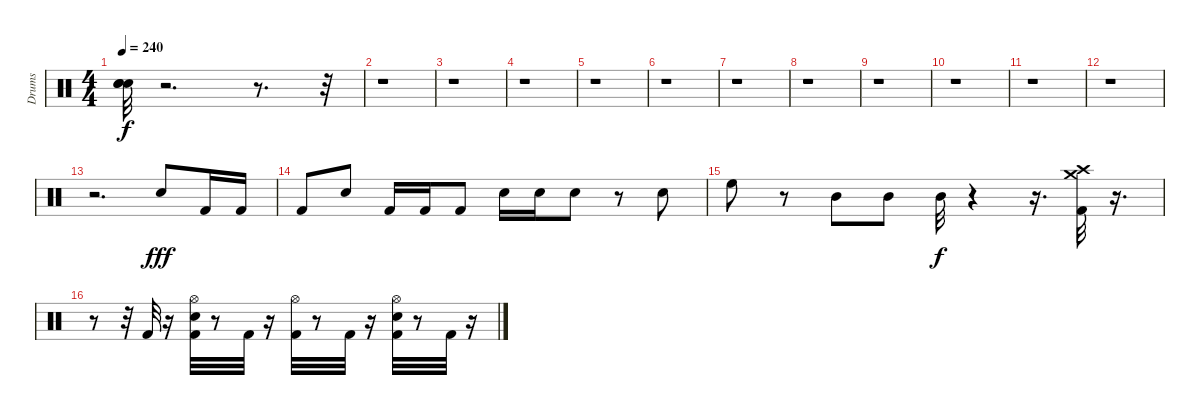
\track ("Drums" "Drums") {instrument percussion}
\staff {score}
\articulation defaults
\ts (4 4)
\tempo 240
\clef neutral
\ks c
("Snare (hit)"{t} "Snare (hit)"{t} "Snare (hit)"{t}).32{dy f} r.2{d} r.8{d} r.32 |
r.1 |
r.1 |
r.1 |
r.1 |
r.1 |
r.1 |
r.1 |
r.1 |
r.1 |
r.1 |
r.1 |
r.2{d} "Electric Snare (hit)".8{dy fff} "Kick (hit) 2".16 "Kick (hit) 2".16 |
"Kick (hit) 2".8 "Electric Snare (hit)".8 "Kick (hit) 2".16 "Kick (hit) 2".16 "Kick (hit) 2".8 "Electric Snare (hit)".16 "Electric Snare (hit)".16 "Electric Snare (hit)".8 r.8 "Electric Snare (hit)".8 |
"High Floor Tom (hit)".8 r.8 "Mid Tom (hit)".8 "Mid Tom (hit)".8 "Mid Tom (hit)".32{dy f} r.4 r.16{d} ("Crash medium (hit)" "Crash high (hit)" "Kick (hit) 2").32 r.16{d} |
r.8 r.32 "Kick (hit) 2".32 r.16 ("Electric Snare (hit)" "Hi-Hat (open)" "Kick (hit) 2").32 r.8 "Kick (hit) 2".32 r.16 ("Hi-Hat (open)" "Kick (hit) 2").32 r.8 "Kick (hit) 2".32 r.16 ("Kick (hit) 2" "Electric Snare (hit)" "Hi-Hat (open)").32 r.8 "Kick (hit) 2".32 r.16
